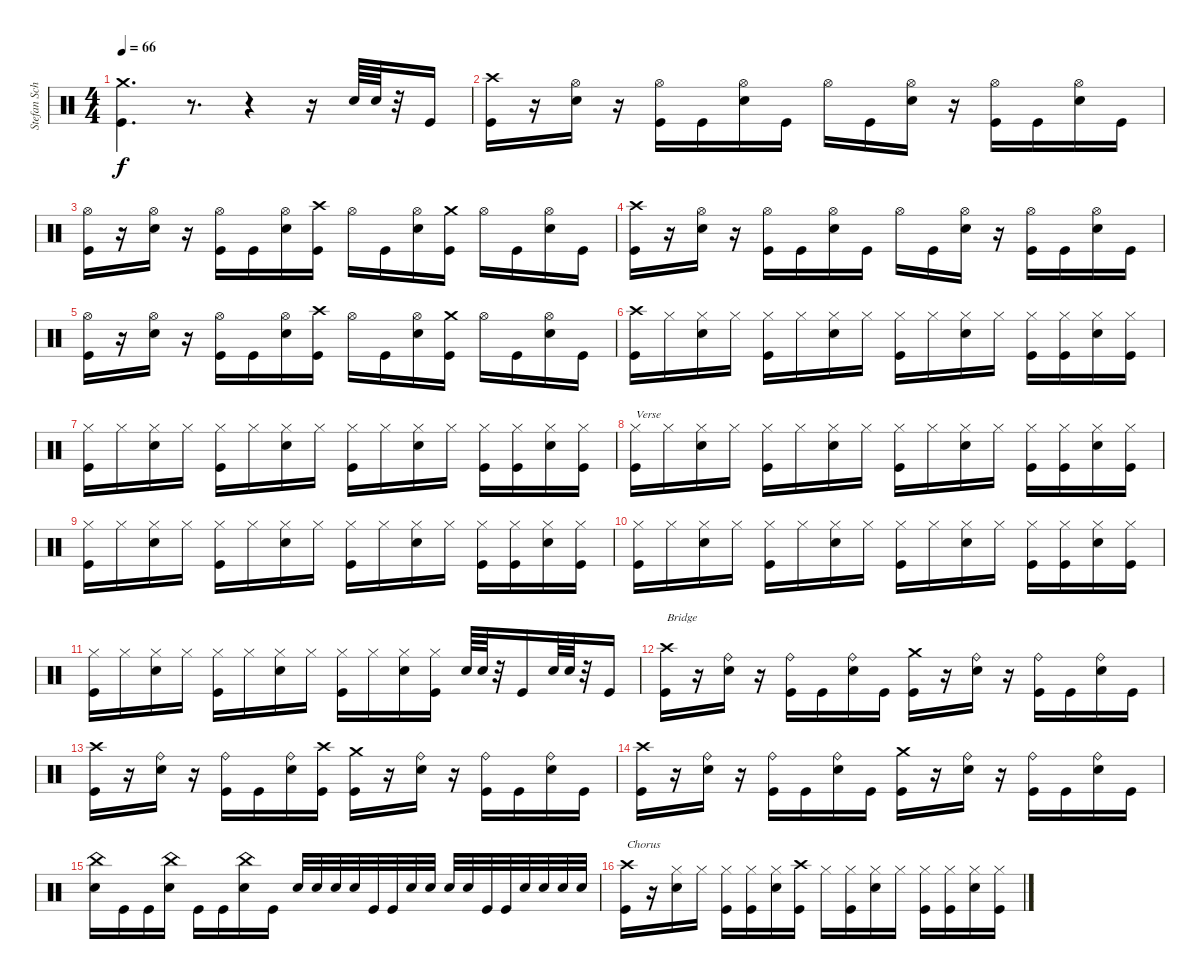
\track ("Stefan Schwarzmann" "Stefan Sch") {instrument percussion}
\staff {score}
\articulation defaults
\ts (4 4)
\tempo 66
\clef neutral
\ks c
("Kick (hit)" "Crash medium (hit)").4{d dy f} r.8{d} r.4 r.16 "Snare (hit) 2".64 "Snare (hit) 2".64 r.32 "Kick (hit)".16 |
("Kick (hit)" "Crash high (hit)").16 r.16 ("Snare (hit) 2" "Hi-Hat (open)").16 r.16 ("Kick (hit)" "Hi-Hat (open)").16 "Kick (hit)".16 ("Snare (hit) 2" "Hi-Hat (open)").16 "Kick (hit)".16 "Hi-Hat (open)".16 "Kick (hit)".16 ("Snare (hit) 2" "Hi-Hat (open)").16 r.16 ("Kick (hit)" "Hi-Hat (open)").16 "Kick (hit)".16 ("Snare (hit) 2" "Hi-Hat (open)").16 "Kick (hit)".16 |
("Kick (hit)" "Hi-Hat (open)").16 r.16 ("Snare (hit) 2" "Hi-Hat (open)").16 r.16 ("Kick (hit)" "Hi-Hat (open)").16 "Kick (hit)".16 ("Snare (hit) 2" "Hi-Hat (open)").16 ("Kick (hit)" "Crash high (hit)").16 "Hi-Hat (open)".16 "Kick (hit)".16 ("Snare (hit) 2" "Hi-Hat (open)").16 ("Kick (hit)" "Crash medium (hit)").16 "Hi-Hat (open)".16 "Kick (hit)".16 ("Snare (hit) 2" "Hi-Hat (open)").16 "Kick (hit)".16 |
("Kick (hit)" "Crash high (hit)").16 r.16 ("Snare (hit) 2" "Hi-Hat (open)").16 r.16 ("Kick (hit)" "Hi-Hat (open)").16 "Kick (hit)".16 ("Snare (hit) 2" "Hi-Hat (open)").16 "Kick (hit)".16 "Hi-Hat (open)".16 "Kick (hit)".16 ("Snare (hit) 2" "Hi-Hat (open)").16 r.16 ("Kick (hit)" "Hi-Hat (open)").16 "Kick (hit)".16 ("Snare (hit) 2" "Hi-Hat (open)").16 "Kick (hit)".16 |
("Kick (hit)" "Hi-Hat (open)").16 r.16 ("Snare (hit) 2" "Hi-Hat (open)").16 r.16 ("Kick (hit)" "Hi-Hat (open)").16 "Kick (hit)".16 ("Snare (hit) 2" "Hi-Hat (open)").16 ("Kick (hit)" "Crash high (hit)").16 "Hi-Hat (open)".16 "Kick (hit)".16 ("Snare (hit) 2" "Hi-Hat (open)").16 ("Kick (hit)" "Crash medium (hit)").16 "Hi-Hat (open)".16 "Kick (hit)".16 ("Snare (hit) 2" "Hi-Hat (open)").16 "Kick (hit)".16 |
("Kick (hit)" "Crash high (hit)").16 "Hi-Hat (closed)".16 ("Hi-Hat (closed)" "Snare (hit) 2").16 "Hi-Hat (closed)".16 ("Hi-Hat (closed)" "Kick (hit)").16 "Hi-Hat (closed)".16 ("Snare (hit) 2" "Hi-Hat (closed)").16 "Hi-Hat (closed)".16 ("Hi-Hat (closed)" "Kick (hit)").16 "Hi-Hat (closed)".16 ("Snare (hit) 2" "Hi-Hat (closed)").16 "Hi-Hat (closed)".16 ("Kick (hit)" "Hi-Hat (closed)").16 ("Kick (hit)" "Hi-Hat (closed)").16 ("Snare (hit) 2" "Hi-Hat (closed)").16 ("Kick (hit)" "Hi-Hat (closed)").16 |
("Kick (hit)" "Hi-Hat (closed)").16 "Hi-Hat (closed)".16 ("Hi-Hat (closed)" "Snare (hit) 2").16 "Hi-Hat (closed)".16 ("Hi-Hat (closed)" "Kick (hit)").16 "Hi-Hat (closed)".16 ("Snare (hit) 2" "Hi-Hat (closed)").16 "Hi-Hat (closed)".16 ("Hi-Hat (closed)" "Kick (hit)").16 "Hi-Hat (closed)".16 ("Snare (hit) 2" "Hi-Hat (closed)").16 "Hi-Hat (closed)".16 ("Kick (hit)" "Hi-Hat (closed)").16 ("Kick (hit)" "Hi-Hat (closed)").16 ("Snare (hit) 2" "Hi-Hat (closed)").16 ("Kick (hit)" "Hi-Hat (closed)").16 |
("Kick (hit)" "Hi-Hat (closed)").16{txt "Verse"} "Hi-Hat (closed)".16 ("Hi-Hat (closed)" "Snare (hit) 2").16 "Hi-Hat (closed)".16 ("Hi-Hat (closed)" "Kick (hit)").16 "Hi-Hat (closed)".16 ("Snare (hit) 2" "Hi-Hat (closed)").16 "Hi-Hat (closed)".16 ("Hi-Hat (closed)" "Kick (hit)").16 "Hi-Hat (closed)".16 ("Snare (hit) 2" "Hi-Hat (closed)").16 "Hi-Hat (closed)".16 ("Kick (hit)" "Hi-Hat (closed)").16 ("Kick (hit)" "Hi-Hat (closed)").16 ("Snare (hit) 2" "Hi-Hat (closed)").16 ("Kick (hit)" "Hi-Hat (closed)").16 |
("Kick (hit)" "Hi-Hat (closed)").16 "Hi-Hat (closed)".16 ("Hi-Hat (closed)" "Snare (hit) 2").16 "Hi-Hat (closed)".16 ("Hi-Hat (closed)" "Kick (hit)").16 "Hi-Hat (closed)".16 ("Snare (hit) 2" "Hi-Hat (closed)").16 "Hi-Hat (closed)".16 ("Hi-Hat (closed)" "Kick (hit)").16 "Hi-Hat (closed)".16 ("Snare (hit) 2" "Hi-Hat (closed)").16 "Hi-Hat (closed)".16 ("Kick (hit)" "Hi-Hat (closed)").16 ("Kick (hit)" "Hi-Hat (closed)").16 ("Snare (hit) 2" "Hi-Hat (closed)").16 ("Kick (hit)" "Hi-Hat (closed)").16 |
("Kick (hit)" "Hi-Hat (closed)").16 "Hi-Hat (closed)".16 ("Hi-Hat (closed)" "Snare (hit) 2").16 "Hi-Hat (closed)".16 ("Hi-Hat (closed)" "Kick (hit)").16 "Hi-Hat (closed)".16 ("Snare (hit) 2" "Hi-Hat (closed)").16 "Hi-Hat (closed)".16 ("Hi-Hat (closed)" "Kick (hit)").16 "Hi-Hat (closed)".16 ("Snare (hit) 2" "Hi-Hat (closed)").16 "Hi-Hat (closed)".16 ("Kick (hit)" "Hi-Hat (closed)").16 ("Kick (hit)" "Hi-Hat (closed)").16 ("Snare (hit) 2" "Hi-Hat (closed)").16 ("Kick (hit)" "Hi-Hat (closed)").16 |
("Kick (hit)" "Hi-Hat (closed)").16 "Hi-Hat (closed)".16 ("Hi-Hat (closed)" "Snare (hit) 2").16 "Hi-Hat (closed)".16 ("Hi-Hat (closed)" "Kick (hit)").16 "Hi-Hat (closed)".16 ("Snare (hit) 2" "Hi-Hat (closed)").16 "Hi-Hat (closed)".16 ("Hi-Hat (closed)" "Kick (hit)").16 "Hi-Hat (closed)".16 ("Snare (hit) 2" "Hi-Hat (closed)").16 ("Kick (hit)" "Hi-Hat (closed)").16 "Snare (hit) 2".64 "Snare (hit) 2".64 r.32 "Kick (hit)".16 "Snare (hit) 2".64 "Snare (hit) 2".64 r.32 "Kick (hit)".16 |
("Kick (hit)" "Crash high (hit)").16{txt "Bridge"} r.16 ("Snare (hit) 2" "Ride (bell)").16 r.16 ("Kick (hit)" "Ride (bell)").16 "Kick (hit)".16 ("Snare (hit) 2" "Ride (bell)").16 "Kick (hit)".16 ("Kick (hit)" "Crash medium (hit)").16 r.16 ("Snare (hit) 2" "Ride (bell)").16 r.16 ("Kick (hit)" "Ride (bell)").16 "Kick (hit)".16 ("Ride (bell)" "Snare (hit) 2").16 "Kick (hit)".16 |
("Kick (hit)" "Crash high (hit)").16 r.16 ("Snare (hit) 2" "Ride (bell)").16 r.16 ("Kick (hit)" "Ride (bell)").16 "Kick (hit)".16 ("Snare (hit) 2" "Ride (bell)").16 ("Kick (hit)" "Crash high (hit)").16 ("Kick (hit)" "Crash medium (hit)").16 r.16 ("Snare (hit) 2" "Ride (bell)").16 r.16 ("Kick (hit)" "Ride (bell)").16 "Kick (hit)".16 ("Ride (bell)" "Snare (hit) 2").16 "Kick (hit)".16 |
("Kick (hit)" "Crash high (hit)").16 r.16 ("Snare (hit) 2" "Ride (bell)").16 r.16 ("Kick (hit)" "Ride (bell)").16 "Kick (hit)".16 ("Snare (hit) 2" "Ride (bell)").16 "Kick (hit)".16 ("Kick (hit)" "Crash medium (hit)").16 r.16 ("Snare (hit) 2" "Ride (bell)").16 r.16 ("Kick (hit)" "Ride (bell)").16 "Kick (hit)".16 ("Ride (bell)" "Snare (hit) 2").16 "Kick (hit)".16 |
("Snare (hit) 2" "China (hit)").16 "Kick (hit)".16 "Kick (hit)".16 ("Snare (hit) 2" "China (hit)").16 "Kick (hit)".16 "Kick (hit)".16 ("Snare (hit) 2" "China (hit)").16 "Kick (hit)".16 "Snare (hit) 2".32 "Snare (hit) 2".32 "Snare (hit) 2".32 "Snare (hit) 2".32 "Kick (hit)".32 "Kick (hit)".32 "Snare (hit) 2".32 "Snare (hit) 2".32 "Snare (hit) 2".32 "Snare (hit) 2".32 "Kick (hit)".32 "Kick (hit)".32 "Snare (hit) 2".32 "Snare (hit) 2".32 "Snare (hit) 2".32 "Snare (hit) 2".32 |
("Kick (hit)" "Crash high (hit)").16{txt "Chorus"} r.16 ("Snare (hit) 2" "Hi-Hat (closed)").16 "Hi-Hat (closed)".16 ("Kick (hit)" "Hi-Hat (closed)").16 ("Kick (hit)" "Hi-Hat (closed)").16 ("Snare (hit) 2" "Hi-Hat (closed)").16 ("Kick (hit)" "Crash high (hit)").16 "Hi-Hat (closed)".16 ("Kick (hit)" "Hi-Hat (closed)").16 ("Snare (hit) 2" "Hi-Hat (closed)").16 "Hi-Hat (closed)".16 ("Kick (hit)" "Hi-Hat (closed)").16 ("Kick (hit)" "Hi-Hat (closed)").16 ("Snare (hit) 2" "Hi-Hat (closed)").16 ("Kick (hit)" "Hi-Hat (closed)").16
